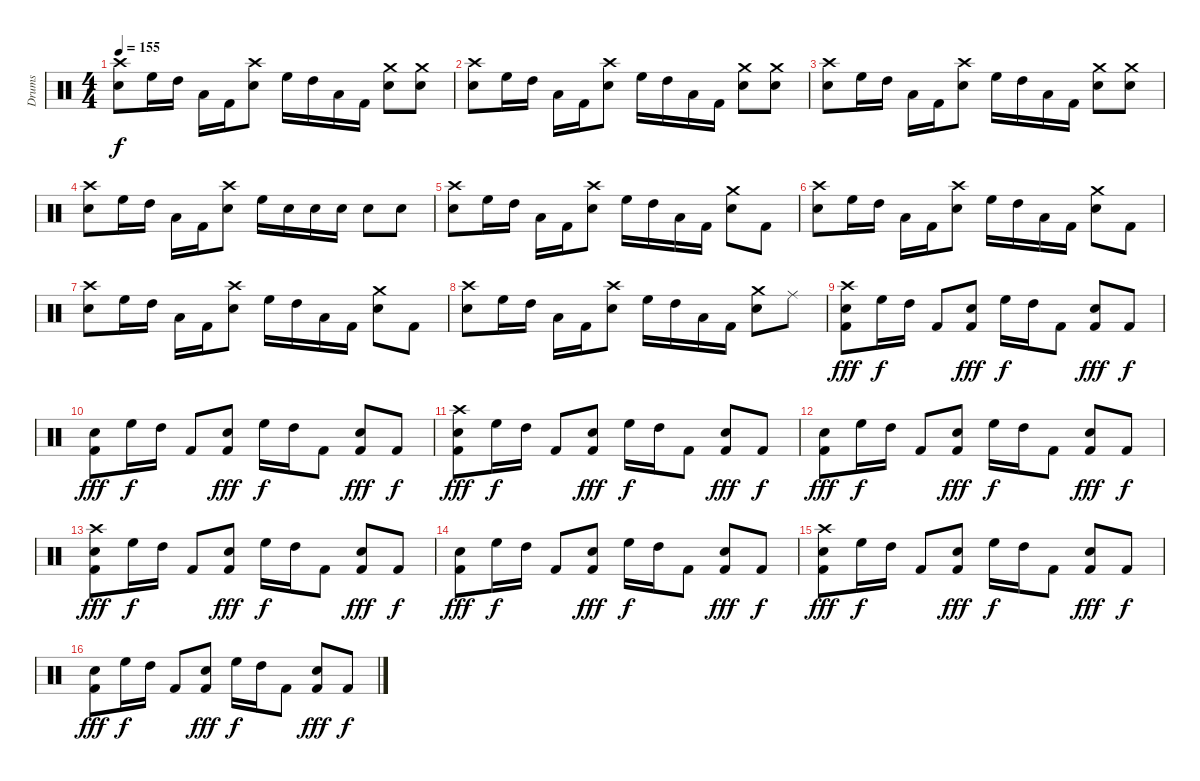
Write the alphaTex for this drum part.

\track ("Drums" "Drums") {instrument percussion}
\staff {score}
\articulation defaults
\ts (4 4)
\tempo 155
\clef neutral
\ks c
("Crash high (hit)" "Electric Snare (hit)").8{dy f} "High Floor Tom (hit)".16 "High Tom (hit)".16 "Low Floor Tom (hit)".16 "Kick (hit) 2".16 ("Crash high (hit)" "Electric Snare (hit)").8 "High Floor Tom (hit)".16 "High Tom (hit)".16 "Low Floor Tom (hit)".16 "Kick (hit) 2".16 ("Crash medium (hit)" "Electric Snare (hit)").8 ("Crash medium (hit)" "Electric Snare (hit)").8 |
("Crash high (hit)" "Electric Snare (hit)").8 "High Floor Tom (hit)".16 "High Tom (hit)".16 "Low Floor Tom (hit)".16 "Kick (hit) 2".16 ("Crash high (hit)" "Electric Snare (hit)").8 "High Floor Tom (hit)".16 "High Tom (hit)".16 "Low Floor Tom (hit)".16 "Kick (hit) 2".16 ("Crash medium (hit)" "Electric Snare (hit)").8 ("Crash medium (hit)" "Electric Snare (hit)").8 |
("Crash high (hit)" "Electric Snare (hit)").8 "High Floor Tom (hit)".16 "High Tom (hit)".16 "Low Floor Tom (hit)".16 "Kick (hit) 2".16 ("Crash high (hit)" "Electric Snare (hit)").8 "High Floor Tom (hit)".16 "High Tom (hit)".16 "Low Floor Tom (hit)".16 "Kick (hit) 2".16 ("Crash medium (hit)" "Electric Snare (hit)").8 ("Crash medium (hit)" "Electric Snare (hit)").8 |
("Crash high (hit)" "Electric Snare (hit)").8 "High Floor Tom (hit)".16 "High Tom (hit)".16 "Low Floor Tom (hit)".16 "Kick (hit) 2".16 ("Crash high (hit)" "Electric Snare (hit)").8 "High Floor Tom (hit)".16 "Electric Snare (hit)".16 "Electric Snare (hit)".16 "Electric Snare (hit)".16 "Electric Snare (hit)".8 "Electric Snare (hit)".8 |
("Crash high (hit)" "Electric Snare (hit)").8 "High Floor Tom (hit)".16 "High Tom (hit)".16 "Low Floor Tom (hit)".16 "Kick (hit) 2".16 ("Crash high (hit)" "Electric Snare (hit)").8 "High Floor Tom (hit)".16 "High Tom (hit)".16 "Low Floor Tom (hit)".16 "Kick (hit) 2".16 ("Crash medium (hit)" "Electric Snare (hit)").8 "Kick (hit) 2".8 |
("Crash high (hit)" "Electric Snare (hit)").8 "High Floor Tom (hit)".16 "High Tom (hit)".16 "Low Floor Tom (hit)".16 "Kick (hit) 2".16 ("Crash high (hit)" "Electric Snare (hit)").8 "High Floor Tom (hit)".16 "High Tom (hit)".16 "Low Floor Tom (hit)".16 "Kick (hit) 2".16 ("Crash medium (hit)" "Electric Snare (hit)").8 "Kick (hit) 2".8 |
("Crash high (hit)" "Electric Snare (hit)").8 "High Floor Tom (hit)".16 "High Tom (hit)".16 "Low Floor Tom (hit)".16 "Kick (hit) 2".16 ("Crash high (hit)" "Electric Snare (hit)").8 "High Floor Tom (hit)".16 "High Tom (hit)".16 "Low Floor Tom (hit)".16 "Kick (hit) 2".16 ("Crash medium (hit)" "Electric Snare (hit)").8 "Kick (hit) 2".8 |
("Crash high (hit)" "Electric Snare (hit)").8 "High Floor Tom (hit)".16 "High Tom (hit)".16 "Low Floor Tom (hit)".16 "Kick (hit) 2".16 ("Crash high (hit)" "Electric Snare (hit)").8 "High Floor Tom (hit)".16 "High Tom (hit)".16 "Low Floor Tom (hit)".16 "Kick (hit) 2".16 ("Crash medium (hit)" "Electric Snare (hit)").8 "Ride (middle)".8 |
("Crash high (hit)" "Electric Snare (hit)" "Kick (hit) 2").8{dy fff} "High Floor Tom (hit)".16{dy f} "High Tom (hit)".16 "Kick (hit) 2".8 ("Electric Snare (hit)" "Kick (hit) 2").8{dy fff} "High Floor Tom (hit)".16{dy f} "High Tom (hit)".16 "Kick (hit) 2".8 ("Electric Snare (hit)" "Kick (hit) 2").8{dy fff} "Kick (hit) 2".8{dy f} |
("Electric Snare (hit)" "Kick (hit) 2").8{dy fff} "High Floor Tom (hit)".16{dy f} "High Tom (hit)".16 "Kick (hit) 2".8 ("Electric Snare (hit)" "Kick (hit) 2").8{dy fff} "High Floor Tom (hit)".16{dy f} "High Tom (hit)".16 "Kick (hit) 2".8 ("Electric Snare (hit)" "Kick (hit) 2").8{dy fff} "Kick (hit) 2".8{dy f} |
("Crash high (hit)" "Electric Snare (hit)" "Kick (hit) 2").8{dy fff} "High Floor Tom (hit)".16{dy f} "High Tom (hit)".16 "Kick (hit) 2".8 ("Electric Snare (hit)" "Kick (hit) 2").8{dy fff} "High Floor Tom (hit)".16{dy f} "High Tom (hit)".16 "Kick (hit) 2".8 ("Electric Snare (hit)" "Kick (hit) 2").8{dy fff} "Kick (hit) 2".8{dy f} |
("Electric Snare (hit)" "Kick (hit) 2").8{dy fff} "High Floor Tom (hit)".16{dy f} "High Tom (hit)".16 "Kick (hit) 2".8 ("Electric Snare (hit)" "Kick (hit) 2").8{dy fff} "High Floor Tom (hit)".16{dy f} "High Tom (hit)".16 "Kick (hit) 2".8 ("Electric Snare (hit)" "Kick (hit) 2").8{dy fff} "Kick (hit) 2".8{dy f} |
("Crash high (hit)" "Electric Snare (hit)" "Kick (hit) 2").8{dy fff} "High Floor Tom (hit)".16{dy f} "High Tom (hit)".16 "Kick (hit) 2".8 ("Electric Snare (hit)" "Kick (hit) 2").8{dy fff} "High Floor Tom (hit)".16{dy f} "High Tom (hit)".16 "Kick (hit) 2".8 ("Electric Snare (hit)" "Kick (hit) 2").8{dy fff} "Kick (hit) 2".8{dy f} |
("Electric Snare (hit)" "Kick (hit) 2").8{dy fff} "High Floor Tom (hit)".16{dy f} "High Tom (hit)".16 "Kick (hit) 2".8 ("Electric Snare (hit)" "Kick (hit) 2").8{dy fff} "High Floor Tom (hit)".16{dy f} "High Tom (hit)".16 "Kick (hit) 2".8 ("Electric Snare (hit)" "Kick (hit) 2").8{dy fff} "Kick (hit) 2".8{dy f} |
("Crash high (hit)" "Electric Snare (hit)" "Kick (hit) 2").8{dy fff} "High Floor Tom (hit)".16{dy f} "High Tom (hit)".16 "Kick (hit) 2".8 ("Electric Snare (hit)" "Kick (hit) 2").8{dy fff} "High Floor Tom (hit)".16{dy f} "High Tom (hit)".16 "Kick (hit) 2".8 ("Electric Snare (hit)" "Kick (hit) 2").8{dy fff} "Kick (hit) 2".8{dy f} |
("Electric Snare (hit)" "Kick (hit) 2").8{dy fff} "High Floor Tom (hit)".16{dy f} "High Tom (hit)".16 "Kick (hit) 2".8 ("Electric Snare (hit)" "Kick (hit) 2").8{dy fff} "High Floor Tom (hit)".16{dy f} "High Tom (hit)".16 "Kick (hit) 2".8 ("Electric Snare (hit)" "Kick (hit) 2").8{dy fff} "Kick (hit) 2".8{dy f}
